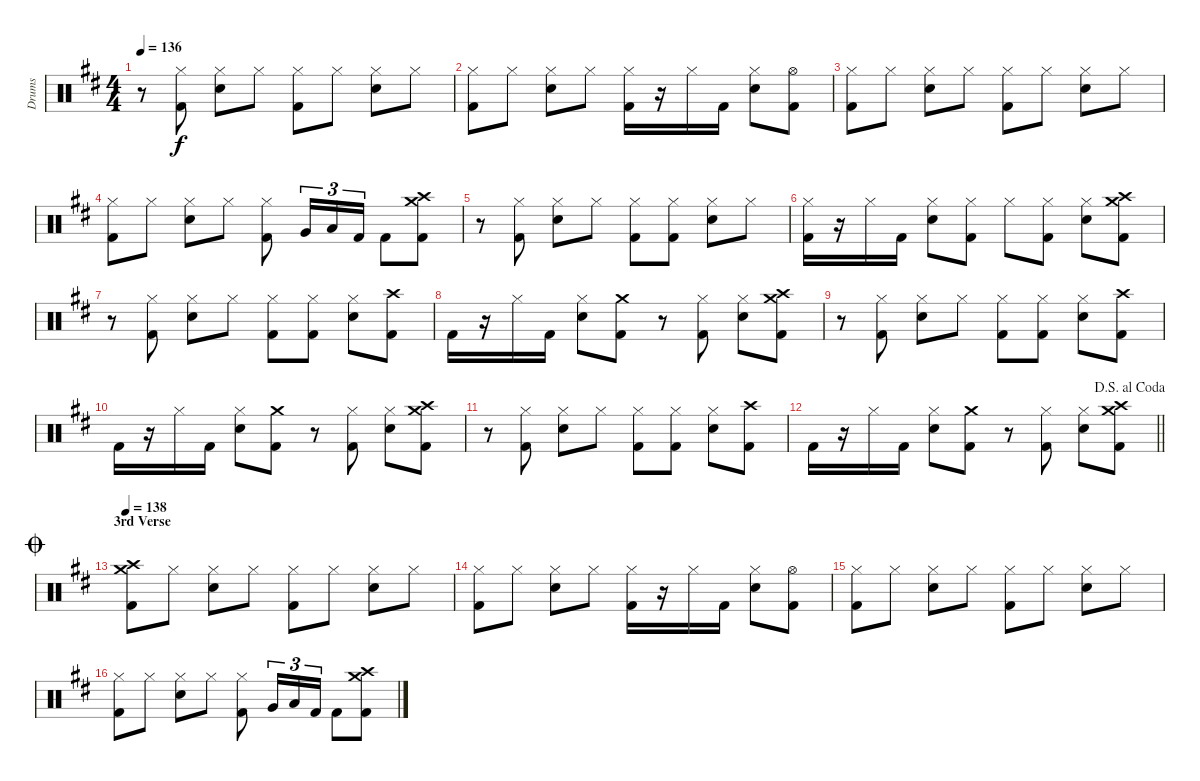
\track ("Drums" "Drums") {instrument percussion}
\staff {score}
\articulation defaults
\ts (4 4)
\tempo 136
\clef neutral
\ks d
r.8{dy f} ("Hi-Hat (closed)" "Kick (hit) 2").8 ("Hi-Hat (closed)" "Electric Snare (hit)").8 "Hi-Hat (closed)".8 ("Hi-Hat (closed)" "Kick (hit) 2").8 "Hi-Hat (closed)".8 ("Hi-Hat (closed)" "Electric Snare (hit)").8 "Hi-Hat (closed)".8 |
("Hi-Hat (closed)" "Kick (hit) 2").8 "Hi-Hat (closed)".8 ("Hi-Hat (closed)" "Electric Snare (hit)").8 "Hi-Hat (closed)".8 ("Hi-Hat (closed)" "Kick (hit) 2").16 r.16 "Hi-Hat (closed)".16 "Kick (hit) 2".16 ("Hi-Hat (closed)" "Electric Snare (hit)").8 ("Hi-Hat (open)" "Kick (hit) 2").8 |
("Hi-Hat (closed)" "Kick (hit) 2").8 "Hi-Hat (closed)".8 ("Hi-Hat (closed)" "Electric Snare (hit)").8 "Hi-Hat (closed)".8 ("Hi-Hat (closed)" "Kick (hit) 2").8 "Hi-Hat (closed)".8 ("Hi-Hat (closed)" "Electric Snare (hit)").8 "Hi-Hat (closed)".8 |
("Hi-Hat (closed)" "Kick (hit) 2").8 "Hi-Hat (closed)".8 ("Hi-Hat (closed)" "Electric Snare (hit)").8 "Hi-Hat (closed)".8 ("Hi-Hat (closed)" "Kick (hit) 2").8 "Very Low Tom (hit)".16{tu (3 2)} "Low Floor Tom (hit)".16{tu (3 2)} "Kick (hit) 2".16{tu (3 2)} "Kick (hit) 2".8 ("Crash medium (hit)" "Crash high (hit)" "Kick (hit) 2").8 |
r.8 ("Hi-Hat (closed)" "Kick (hit) 2").8 ("Hi-Hat (closed)" "Electric Snare (hit)").8 "Hi-Hat (closed)".8 ("Hi-Hat (closed)" "Kick (hit) 2").8 ("Hi-Hat (closed)" "Kick (hit) 2").8 ("Hi-Hat (closed)" "Electric Snare (hit)").8 "Hi-Hat (closed)".8 |
("Hi-Hat (closed)" "Kick (hit) 2").16 r.16 "Hi-Hat (closed)".16 "Kick (hit) 2".16 ("Hi-Hat (closed)" "Electric Snare (hit)").8 ("Hi-Hat (closed)" "Kick (hit) 2").8 "Hi-Hat (closed)".8 ("Hi-Hat (closed)" "Kick (hit) 2").8 ("Hi-Hat (closed)" "Electric Snare (hit)").8 ("Crash medium (hit)" "Crash high (hit)" "Kick (hit) 2").8 |
r.8 ("Hi-Hat (closed)" "Kick (hit) 2").8 ("Hi-Hat (closed)" "Electric Snare (hit)").8 "Hi-Hat (closed)".8 ("Hi-Hat (closed)" "Kick (hit) 2").8 ("Hi-Hat (closed)" "Kick (hit) 2").8 ("Hi-Hat (closed)" "Electric Snare (hit)").8 ("Crash high (hit)" "Kick (hit) 2").8 |
"Kick (hit) 2".16 r.16 "Hi-Hat (closed)".16 "Kick (hit) 2".16 ("Hi-Hat (closed)" "Electric Snare (hit)").8 ("Crash medium (hit)" "Kick (hit) 2").8 r.8 ("Hi-Hat (closed)" "Kick (hit) 2").8 ("Hi-Hat (closed)" "Electric Snare (hit)").8 ("Crash medium (hit)" "Crash high (hit)" "Kick (hit) 2").8 |
r.8 ("Hi-Hat (closed)" "Kick (hit) 2").8 ("Hi-Hat (closed)" "Electric Snare (hit)").8 "Hi-Hat (closed)".8 ("Hi-Hat (closed)" "Kick (hit) 2").8 ("Hi-Hat (closed)" "Kick (hit) 2").8 ("Hi-Hat (closed)" "Electric Snare (hit)").8 ("Crash high (hit)" "Kick (hit) 2").8 |
"Kick (hit) 2".16 r.16 "Hi-Hat (closed)".16 "Kick (hit) 2".16 ("Hi-Hat (closed)" "Electric Snare (hit)").8 ("Crash medium (hit)" "Kick (hit) 2").8 r.8 ("Hi-Hat (closed)" "Kick (hit) 2").8 ("Hi-Hat (closed)" "Electric Snare (hit)").8 ("Crash medium (hit)" "Crash high (hit)" "Kick (hit) 2").8 |
r.8 ("Hi-Hat (closed)" "Kick (hit) 2").8 ("Hi-Hat (closed)" "Electric Snare (hit)").8 "Hi-Hat (closed)".8 ("Hi-Hat (closed)" "Kick (hit) 2").8 ("Hi-Hat (closed)" "Kick (hit) 2").8 ("Hi-Hat (closed)" "Electric Snare (hit)").8 ("Crash high (hit)" "Kick (hit) 2").8 |
\jump dalsegnoalcoda
\barLineRight lightlight "Kick (hit) 2".16
r.16 "Hi-Hat (closed)".16 "Kick (hit) 2".16 ("Hi-Hat (closed)" "Electric Snare (hit)").8 ("Crash medium (hit)" "Kick (hit) 2").8 r.8 ("Hi-Hat (closed)" "Kick (hit) 2").8 ("Hi-Hat (closed)" "Electric Snare (hit)").8 ("Crash medium (hit)" "Crash high (hit)" "Kick (hit) 2").8 |
\section ("" "3rd Verse")
\jump coda
\tempo 138
("Crash medium (hit)" "Crash high (hit)" "Kick (hit) 2").8 "Hi-Hat (closed)".8 ("Hi-Hat (closed)" "Electric Snare (hit)").8 "Hi-Hat (closed)".8 ("Hi-Hat (closed)" "Kick (hit) 2").8 "Hi-Hat (closed)".8 ("Hi-Hat (closed)" "Electric Snare (hit)").8 "Hi-Hat (closed)".8 |
("Hi-Hat (closed)" "Kick (hit) 2").8 "Hi-Hat (closed)".8 ("Hi-Hat (closed)" "Electric Snare (hit)").8 "Hi-Hat (closed)".8 ("Hi-Hat (closed)" "Kick (hit) 2").16 r.16 "Hi-Hat (closed)".16 "Kick (hit) 2".16 ("Hi-Hat (closed)" "Electric Snare (hit)").8 ("Hi-Hat (open)" "Kick (hit) 2").8 |
("Hi-Hat (closed)" "Kick (hit) 2").8 "Hi-Hat (closed)".8 ("Hi-Hat (closed)" "Electric Snare (hit)").8 "Hi-Hat (closed)".8 ("Hi-Hat (closed)" "Kick (hit) 2").8 "Hi-Hat (closed)".8 ("Hi-Hat (closed)" "Electric Snare (hit)").8 "Hi-Hat (closed)".8 |
("Hi-Hat (closed)" "Kick (hit) 2").8 "Hi-Hat (closed)".8 ("Hi-Hat (closed)" "Electric Snare (hit)").8 "Hi-Hat (closed)".8 ("Hi-Hat (closed)" "Kick (hit) 2").8 "Very Low Tom (hit)".16{tu (3 2)} "Low Floor Tom (hit)".16{tu (3 2)} "Kick (hit) 2".16{tu (3 2)} "Kick (hit) 2".8 ("Crash medium (hit)" "Crash high (hit)" "Kick (hit) 2").8
